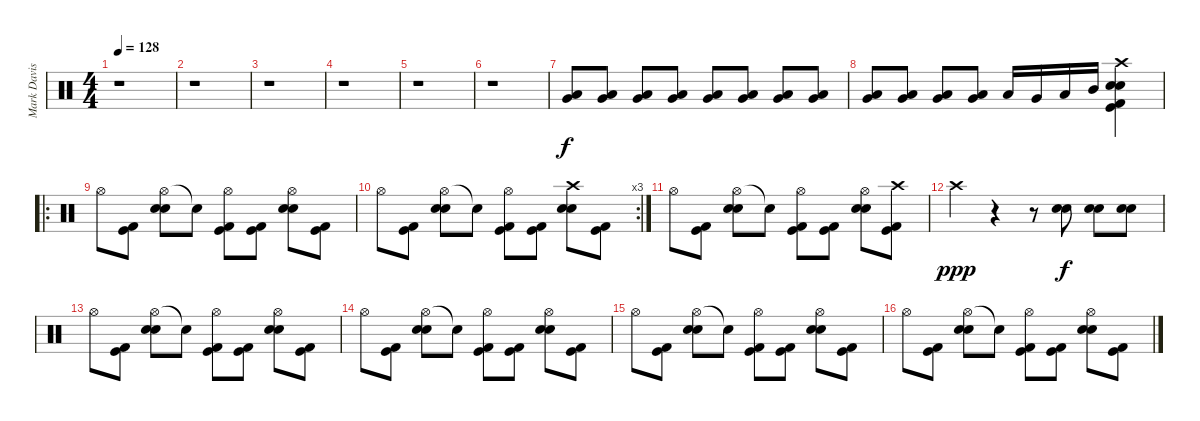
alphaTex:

\track ("Mark Davis (drums)" "Mark Davis") {instrument percussion}
\staff {score}
\articulation defaults
\ts (4 4)
\tempo 128
\clef neutral
\ks c
r.1{dy f} |
r.1 |
r.1 |
r.1 |
r.1 |
r.1 |
("Low Floor Tom (hit)" "Very Low Tom (hit)").8 ("Low Floor Tom (hit)" "Very Low Tom (hit)").8 ("Low Floor Tom (hit)" "Very Low Tom (hit)").8 ("Low Floor Tom (hit)" "Very Low Tom (hit)").8 ("Low Floor Tom (hit)" "Very Low Tom (hit)").8 ("Low Floor Tom (hit)" "Very Low Tom (hit)").8 ("Low Floor Tom (hit)" "Very Low Tom (hit)").8 ("Low Floor Tom (hit)" "Very Low Tom (hit)").8 |
("Low Floor Tom (hit)" "Very Low Tom (hit)").8 ("Low Floor Tom (hit)" "Very Low Tom (hit)").8 ("Low Floor Tom (hit)" "Very Low Tom (hit)").8 ("Low Floor Tom (hit)" "Very Low Tom (hit)").8 "Low Floor Tom (hit)".16 "Very Low Tom (hit)".16 "Low Tom (hit)".16 "Mid Tom (hit)".16 ("Crash high (hit)" "Electric Snare (hit)" "Snare (hit) 2" "Kick (hit)" "Kick (hit) 2").4 |
\ro "Hi-Hat (open)".8
("Kick (hit)" "Kick (hit) 2").8 ("Hi-Hat (open)" "Snare (hit) 2" "Electric Snare (hit)").8 "Snare (hit)"{t}.8 ("Hi-Hat (open)" "Kick (hit)" "Kick (hit) 2").8 ("Kick (hit)" "Kick (hit) 2").8 ("Hi-Hat (open)" "Snare (hit) 2" "Electric Snare (hit)").8 ("Kick (hit)" "Kick (hit) 2").8 |
\rc 3 "Hi-Hat (open)".8
("Kick (hit)" "Kick (hit) 2").8 ("Hi-Hat (open)" "Snare (hit) 2" "Electric Snare (hit)").8 "Snare (hit)"{t}.8 ("Hi-Hat (open)" "Kick (hit)" "Kick (hit) 2").8 ("Kick (hit)" "Kick (hit) 2").8 ("Crash high (hit)" "Snare (hit) 2" "Electric Snare (hit)").8 ("Kick (hit)" "Kick (hit) 2").8 |
"Hi-Hat (open)".8 ("Kick (hit)" "Kick (hit) 2").8 ("Hi-Hat (open)" "Snare (hit) 2" "Electric Snare (hit)").8 "Snare (hit)"{t}.8 ("Hi-Hat (open)" "Kick (hit)" "Kick (hit) 2").8 ("Kick (hit)" "Kick (hit) 2").8 ("Hi-Hat (open)" "Snare (hit) 2" "Electric Snare (hit)").8 ("Crash high (hit)" "Kick (hit)" "Kick (hit) 2").8 |
"Crash high (hit)".4{dy ppp} r.4 r.8 ("Snare (hit) 2" "Electric Snare (hit)").8{dy f} ("Snare (hit) 2" "Electric Snare (hit)").8 ("Snare (hit) 2" "Electric Snare (hit)").8 |
"Hi-Hat (open)".8 ("Kick (hit)" "Kick (hit) 2").8 ("Hi-Hat (open)" "Snare (hit) 2" "Electric Snare (hit)").8 "Snare (hit)"{t}.8 ("Hi-Hat (open)" "Kick (hit)" "Kick (hit) 2").8 ("Kick (hit)" "Kick (hit) 2").8 ("Hi-Hat (open)" "Snare (hit) 2" "Electric Snare (hit)").8 ("Kick (hit)" "Kick (hit) 2").8 |
"Hi-Hat (open)".8 ("Kick (hit)" "Kick (hit) 2").8 ("Hi-Hat (open)" "Snare (hit) 2" "Electric Snare (hit)").8 "Snare (hit)"{t}.8 ("Hi-Hat (open)" "Kick (hit)" "Kick (hit) 2").8 ("Kick (hit)" "Kick (hit) 2").8 ("Hi-Hat (open)" "Snare (hit) 2" "Electric Snare (hit)").8 ("Kick (hit)" "Kick (hit) 2").8 |
"Hi-Hat (open)".8 ("Kick (hit)" "Kick (hit) 2").8 ("Hi-Hat (open)" "Snare (hit) 2" "Electric Snare (hit)").8 "Snare (hit)"{t}.8 ("Hi-Hat (open)" "Kick (hit)" "Kick (hit) 2").8 ("Kick (hit)" "Kick (hit) 2").8 ("Hi-Hat (open)" "Snare (hit) 2" "Electric Snare (hit)").8 ("Kick (hit)" "Kick (hit) 2").8 |
"Hi-Hat (open)".8 ("Kick (hit)" "Kick (hit) 2").8 ("Hi-Hat (open)" "Snare (hit) 2" "Electric Snare (hit)").8 "Snare (hit)"{t}.8 ("Hi-Hat (open)" "Kick (hit)" "Kick (hit) 2").8 ("Kick (hit)" "Kick (hit) 2").8 ("Hi-Hat (open)" "Snare (hit) 2" "Electric Snare (hit)").8 ("Kick (hit)" "Kick (hit) 2").8
